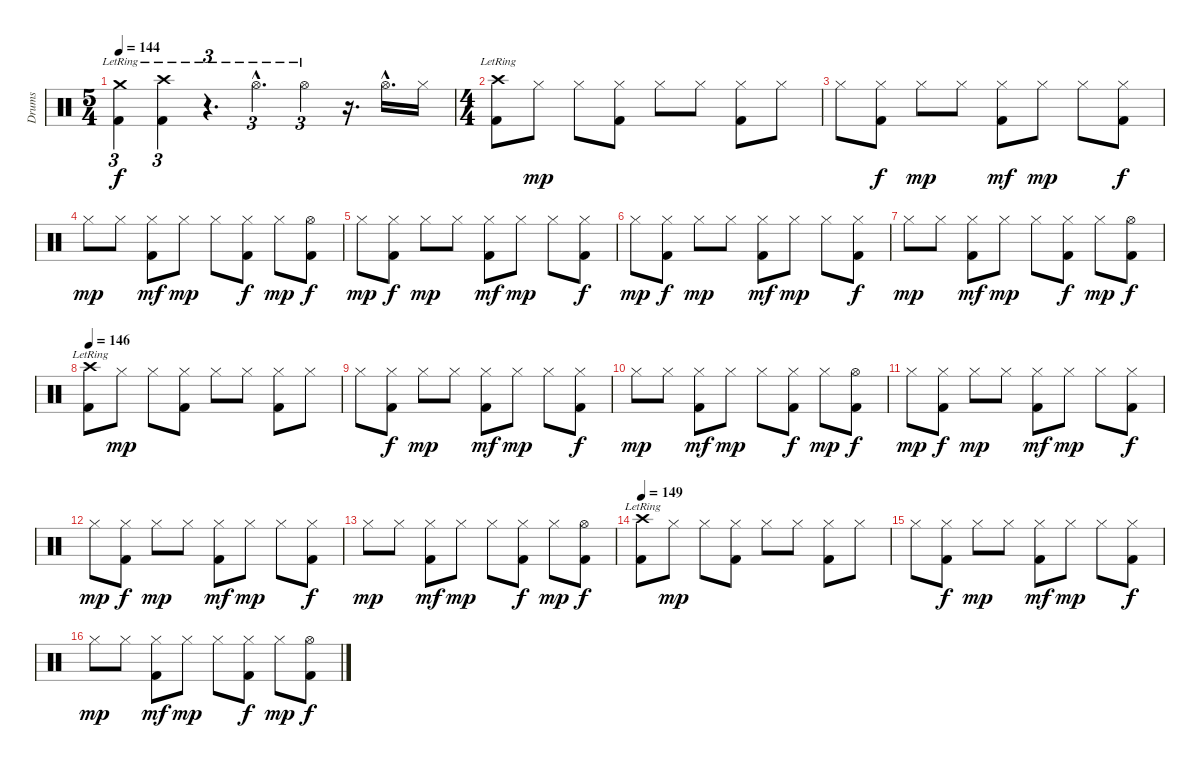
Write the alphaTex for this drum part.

\track ("Drums" "Drums") {instrument percussion}
\staff {score}
\articulation defaults
\ts (5 4)
\tempo 144
\clef neutral
\ks c
("Crash medium (hit)"{lr} "Kick (hit) 2").4{tu (3 2) dy f} ("Crash high (hit)"{lr} "Kick (hit) 2").4{tu (3 2)} r.4{d tu (3 2)} "Hi-Hat (open)"{hac lr}.4{d tu (3 2)} "Hi-Hat (open)"{lr}.4{tu (3 2)} r.16{d} "Hi-Hat (open)"{hac}.16{d} "Hi-Hat (closed)".16 |
\ts (4 4)
("Crash high (hit)"{lr} "Kick (hit) 2").8 "Hi-Hat (closed)".8{dy mp} "Hi-Hat (closed)".8 ("Hi-Hat (closed)" "Kick (hit) 2").8 "Hi-Hat (closed)".8 "Hi-Hat (closed)".8 ("Hi-Hat (closed)" "Kick (hit) 2").8 "Hi-Hat (closed)".8 |
"Hi-Hat (closed)".8 ("Hi-Hat (closed)" "Kick (hit) 2").8{dy f} "Hi-Hat (closed)".8{dy mp} "Hi-Hat (closed)".8 ("Hi-Hat (closed)" "Kick (hit) 2").8{dy mf} "Hi-Hat (closed)".8{dy mp} "Hi-Hat (closed)".8 ("Hi-Hat (closed)" "Kick (hit) 2").8{dy f} |
"Hi-Hat (closed)".8{dy mp} "Hi-Hat (closed)".8 ("Hi-Hat (closed)" "Kick (hit) 2").8{dy mf} "Hi-Hat (closed)".8{dy mp} "Hi-Hat (closed)".8 ("Hi-Hat (closed)" "Kick (hit) 2").8{dy f} "Hi-Hat (closed)".8{dy mp} ("Hi-Hat (open)" "Kick (hit) 2").8{dy f} |
"Hi-Hat (closed)".8{dy mp} ("Hi-Hat (closed)" "Kick (hit) 2").8{dy f} "Hi-Hat (closed)".8{dy mp} "Hi-Hat (closed)".8 ("Hi-Hat (closed)" "Kick (hit) 2").8{dy mf} "Hi-Hat (closed)".8{dy mp} "Hi-Hat (closed)".8 ("Hi-Hat (closed)" "Kick (hit) 2").8{dy f} |
"Hi-Hat (closed)".8{dy mp} ("Hi-Hat (closed)" "Kick (hit) 2").8{dy f} "Hi-Hat (closed)".8{dy mp} "Hi-Hat (closed)".8 ("Hi-Hat (closed)" "Kick (hit) 2").8{dy mf} "Hi-Hat (closed)".8{dy mp} "Hi-Hat (closed)".8 ("Hi-Hat (closed)" "Kick (hit) 2").8{dy f} |
"Hi-Hat (closed)".8{dy mp} "Hi-Hat (closed)".8 ("Hi-Hat (closed)" "Kick (hit) 2").8{dy mf} "Hi-Hat (closed)".8{dy mp} "Hi-Hat (closed)".8 ("Hi-Hat (closed)" "Kick (hit) 2").8{dy f} "Hi-Hat (closed)".8{dy mp} ("Hi-Hat (open)" "Kick (hit) 2").8{dy f} |
\tempo 146
("Crash high (hit)"{lr} "Kick (hit) 2").8 "Hi-Hat (closed)".8{dy mp} "Hi-Hat (closed)".8 ("Hi-Hat (closed)" "Kick (hit) 2").8 "Hi-Hat (closed)".8 "Hi-Hat (closed)".8 ("Hi-Hat (closed)" "Kick (hit) 2").8 "Hi-Hat (closed)".8 |
"Hi-Hat (closed)".8 ("Hi-Hat (closed)" "Kick (hit) 2").8{dy f} "Hi-Hat (closed)".8{dy mp} "Hi-Hat (closed)".8 ("Hi-Hat (closed)" "Kick (hit) 2").8{dy mf} "Hi-Hat (closed)".8{dy mp} "Hi-Hat (closed)".8 ("Hi-Hat (closed)" "Kick (hit) 2").8{dy f} |
"Hi-Hat (closed)".8{dy mp} "Hi-Hat (closed)".8 ("Hi-Hat (closed)" "Kick (hit) 2").8{dy mf} "Hi-Hat (closed)".8{dy mp} "Hi-Hat (closed)".8 ("Hi-Hat (closed)" "Kick (hit) 2").8{dy f} "Hi-Hat (closed)".8{dy mp} ("Hi-Hat (open)" "Kick (hit) 2").8{dy f} |
"Hi-Hat (closed)".8{dy mp} ("Hi-Hat (closed)" "Kick (hit) 2").8{dy f} "Hi-Hat (closed)".8{dy mp} "Hi-Hat (closed)".8 ("Hi-Hat (closed)" "Kick (hit) 2").8{dy mf} "Hi-Hat (closed)".8{dy mp} "Hi-Hat (closed)".8 ("Hi-Hat (closed)" "Kick (hit) 2").8{dy f} |
"Hi-Hat (closed)".8{dy mp} ("Hi-Hat (closed)" "Kick (hit) 2").8{dy f} "Hi-Hat (closed)".8{dy mp} "Hi-Hat (closed)".8 ("Hi-Hat (closed)" "Kick (hit) 2").8{dy mf} "Hi-Hat (closed)".8{dy mp} "Hi-Hat (closed)".8 ("Hi-Hat (closed)" "Kick (hit) 2").8{dy f} |
"Hi-Hat (closed)".8{dy mp} "Hi-Hat (closed)".8 ("Hi-Hat (closed)" "Kick (hit) 2").8{dy mf} "Hi-Hat (closed)".8{dy mp} "Hi-Hat (closed)".8 ("Hi-Hat (closed)" "Kick (hit) 2").8{dy f} "Hi-Hat (closed)".8{dy mp} ("Hi-Hat (open)" "Kick (hit) 2").8{dy f} |
\tempo 149
("Crash high (hit)"{lr} "Kick (hit) 2").8 "Hi-Hat (closed)".8{dy mp} "Hi-Hat (closed)".8 ("Hi-Hat (closed)" "Kick (hit) 2").8 "Hi-Hat (closed)".8 "Hi-Hat (closed)".8 ("Hi-Hat (closed)" "Kick (hit) 2").8 "Hi-Hat (closed)".8 |
"Hi-Hat (closed)".8 ("Hi-Hat (closed)" "Kick (hit) 2").8{dy f} "Hi-Hat (closed)".8{dy mp} "Hi-Hat (closed)".8 ("Hi-Hat (closed)" "Kick (hit) 2").8{dy mf} "Hi-Hat (closed)".8{dy mp} "Hi-Hat (closed)".8 ("Hi-Hat (closed)" "Kick (hit) 2").8{dy f} |
"Hi-Hat (closed)".8{dy mp} "Hi-Hat (closed)".8 ("Hi-Hat (closed)" "Kick (hit) 2").8{dy mf} "Hi-Hat (closed)".8{dy mp} "Hi-Hat (closed)".8 ("Hi-Hat (closed)" "Kick (hit) 2").8{dy f} "Hi-Hat (closed)".8{dy mp} ("Hi-Hat (open)" "Kick (hit) 2").8{dy f}
